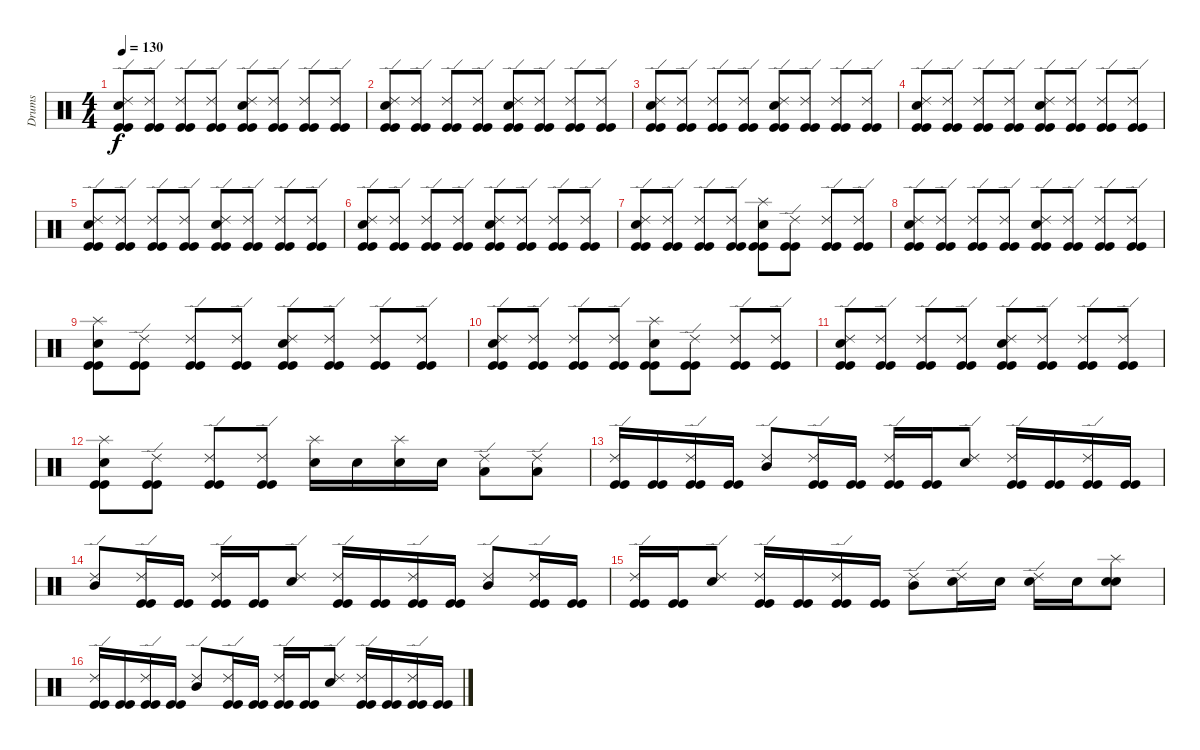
\track ("Drums" "Drums") {instrument percussion}
\staff {score}
\articulation defaults
\ts (4 4)
\tempo 130
\clef neutral
\ks c
("Ride (edge) 2" "Snare (hit) 2" "Kick (hit)" "Kick (hit)").8{dy f} ("Ride (edge) 2" "Kick (hit)" "Kick (hit)").8 ("Ride (edge) 2" "Kick (hit)" "Kick (hit)").8 ("Ride (edge) 2" "Kick (hit)" "Kick (hit)").8 ("Ride (edge) 2" "Snare (hit) 2" "Kick (hit)" "Kick (hit)").8 ("Ride (edge) 2" "Kick (hit)" "Kick (hit)").8 ("Ride (edge) 2" "Kick (hit)" "Kick (hit)").8 ("Ride (edge) 2" "Kick (hit)" "Kick (hit)").8 |
("Ride (edge) 2" "Snare (hit) 2" "Kick (hit)" "Kick (hit)").8 ("Ride (edge) 2" "Kick (hit)" "Kick (hit)").8 ("Ride (edge) 2" "Kick (hit)" "Kick (hit)").8 ("Ride (edge) 2" "Kick (hit)" "Kick (hit)").8 ("Ride (edge) 2" "Snare (hit) 2" "Kick (hit)" "Kick (hit)").8 ("Ride (edge) 2" "Kick (hit)" "Kick (hit)").8 ("Ride (edge) 2" "Kick (hit)" "Kick (hit)").8 ("Ride (edge) 2" "Kick (hit)" "Kick (hit)").8 |
("Ride (edge) 2" "Snare (hit) 2" "Kick (hit)" "Kick (hit)").8 ("Ride (edge) 2" "Kick (hit)" "Kick (hit)").8 ("Ride (edge) 2" "Kick (hit)" "Kick (hit)").8 ("Ride (edge) 2" "Kick (hit)" "Kick (hit)").8 ("Ride (edge) 2" "Snare (hit) 2" "Kick (hit)" "Kick (hit)").8 ("Ride (edge) 2" "Kick (hit)" "Kick (hit)").8 ("Ride (edge) 2" "Kick (hit)" "Kick (hit)").8 ("Ride (edge) 2" "Kick (hit)" "Kick (hit)").8 |
("Ride (edge) 2" "Snare (hit) 2" "Kick (hit)" "Kick (hit)").8 ("Ride (edge) 2" "Kick (hit)" "Kick (hit)").8 ("Ride (edge) 2" "Kick (hit)" "Kick (hit)").8 ("Ride (edge) 2" "Kick (hit)" "Kick (hit)").8 ("Ride (edge) 2" "Snare (hit) 2" "Kick (hit)" "Kick (hit)").8 ("Ride (edge) 2" "Kick (hit)" "Kick (hit)").8 ("Ride (edge) 2" "Kick (hit)" "Kick (hit)").8 ("Ride (edge) 2" "Kick (hit)" "Kick (hit)").8 |
("Ride (edge) 2" "Snare (hit) 2" "Kick (hit)" "Kick (hit)").8 ("Ride (edge) 2" "Kick (hit)" "Kick (hit)").8 ("Ride (edge) 2" "Kick (hit)" "Kick (hit)").8 ("Ride (edge) 2" "Kick (hit)" "Kick (hit)").8 ("Ride (edge) 2" "Snare (hit) 2" "Kick (hit)" "Kick (hit)").8 ("Ride (edge) 2" "Kick (hit)" "Kick (hit)").8 ("Ride (edge) 2" "Kick (hit)" "Kick (hit)").8 ("Ride (edge) 2" "Kick (hit)" "Kick (hit)").8 |
("Ride (edge) 2" "Snare (hit) 2" "Kick (hit)" "Kick (hit)").8 ("Ride (edge) 2" "Kick (hit)" "Kick (hit)").8 ("Ride (edge) 2" "Kick (hit)" "Kick (hit)").8 ("Ride (edge) 2" "Kick (hit)" "Kick (hit)").8 ("Ride (edge) 2" "Snare (hit) 2" "Kick (hit)" "Kick (hit)").8 ("Ride (edge) 2" "Kick (hit)" "Kick (hit)").8 ("Ride (edge) 2" "Kick (hit)" "Kick (hit)").8 ("Ride (edge) 2" "Kick (hit)" "Kick (hit)").8 |
("Ride (edge) 2" "Snare (hit) 2" "Kick (hit)" "Kick (hit)").8 ("Ride (edge) 2" "Kick (hit)" "Kick (hit)").8 ("Ride (edge) 2" "Kick (hit)" "Kick (hit)").8 ("Ride (edge) 2" "Kick (hit)" "Kick (hit)").8 ("Splash (hit)" "Snare (hit) 2" "Kick (hit)" "Kick (hit)").8 ("Ride (edge) 2" "Kick (hit)" "Kick (hit)").8 ("Ride (edge) 2" "Kick (hit)" "Kick (hit)").8 ("Ride (edge) 2" "Kick (hit)" "Kick (hit)").8 |
("Ride (edge) 2" "Snare (hit) 2" "Kick (hit)" "Kick (hit)").8 ("Ride (edge) 2" "Kick (hit)" "Kick (hit)").8 ("Ride (edge) 2" "Kick (hit)" "Kick (hit)").8 ("Ride (edge) 2" "Kick (hit)" "Kick (hit)").8 ("Ride (edge) 2" "Snare (hit) 2" "Kick (hit)" "Kick (hit)").8 ("Ride (edge) 2" "Kick (hit)" "Kick (hit)").8 ("Ride (edge) 2" "Kick (hit)" "Kick (hit)").8 ("Ride (edge) 2" "Kick (hit)" "Kick (hit)").8 |
("Splash (hit)" "Snare (hit) 2" "Kick (hit)" "Kick (hit)").8 ("Ride (edge) 2" "Kick (hit)" "Kick (hit)").8 ("Ride (edge) 2" "Kick (hit)" "Kick (hit)").8 ("Ride (edge) 2" "Kick (hit)" "Kick (hit)").8 ("Ride (edge) 2" "Snare (hit) 2" "Kick (hit)" "Kick (hit)").8 ("Ride (edge) 2" "Kick (hit)" "Kick (hit)").8 ("Ride (edge) 2" "Kick (hit)" "Kick (hit)").8 ("Ride (edge) 2" "Kick (hit)" "Kick (hit)").8 |
("Ride (edge) 2" "Snare (hit) 2" "Kick (hit)" "Kick (hit)").8 ("Ride (edge) 2" "Kick (hit)" "Kick (hit)").8 ("Ride (edge) 2" "Kick (hit)" "Kick (hit)").8 ("Ride (edge) 2" "Kick (hit)" "Kick (hit)").8 ("Splash (hit)" "Snare (hit) 2" "Kick (hit)" "Kick (hit)").8 ("Ride (edge) 2" "Kick (hit)" "Kick (hit)").8 ("Ride (edge) 2" "Kick (hit)" "Kick (hit)").8 ("Ride (edge) 2" "Kick (hit)" "Kick (hit)").8 |
("Ride (edge) 2" "Snare (hit) 2" "Kick (hit)" "Kick (hit)").8 ("Ride (edge) 2" "Kick (hit)" "Kick (hit)").8 ("Ride (edge) 2" "Kick (hit)" "Kick (hit)").8 ("Ride (edge) 2" "Kick (hit)" "Kick (hit)").8 ("Ride (edge) 2" "Snare (hit) 2" "Kick (hit)" "Kick (hit)").8 ("Ride (edge) 2" "Kick (hit)" "Kick (hit)").8 ("Ride (edge) 2" "Kick (hit)" "Kick (hit)").8 ("Ride (edge) 2" "Kick (hit)" "Kick (hit)").8 |
("Splash (hit)" "Snare (hit) 2" "Kick (hit)" "Kick (hit)").8 ("Ride (edge) 2" "Kick (hit)" "Kick (hit)").8 ("Ride (edge) 2" "Kick (hit)" "Kick (hit)").8 ("Ride (edge) 2" "Kick (hit)" "Kick (hit)").8 ("Splash (hit)" "Snare (hit) 2").16 "Snare (hit) 2".16 ("Splash (hit)" "Snare (hit) 2").16 "Snare (hit) 2".16 ("Ride (edge) 2" "Low Tom (hit)").8 ("Ride (edge) 2" "Low Tom (hit)").8 |
("Ride (edge) 2" "Kick (hit)" "Kick (hit)").16 ("Kick (hit)" "Kick (hit)").16 ("Ride (edge) 2" "Kick (hit)" "Kick (hit)").16 ("Kick (hit)" "Kick (hit)").16 ("Ride (edge) 2" "Mid Tom (hit)").8 ("Ride (edge) 2" "Kick (hit)" "Kick (hit)").16 ("Kick (hit)" "Kick (hit)").16 ("Ride (edge) 2" "Kick (hit)" "Kick (hit)").16 ("Kick (hit)" "Kick (hit)").16 ("Ride (edge) 2" "Snare (hit) 2").8 ("Ride (edge) 2" "Kick (hit)" "Kick (hit)").16 ("Kick (hit)" "Kick (hit)").16 ("Ride (edge) 2" "Kick (hit)" "Kick (hit)").16 ("Kick (hit)" "Kick (hit)").16 |
("Ride (edge) 2" "Mid Tom (hit)").8 ("Ride (edge) 2" "Kick (hit)" "Kick (hit)").16 ("Kick (hit)" "Kick (hit)").16 ("Ride (edge) 2" "Kick (hit)" "Kick (hit)").16 ("Kick (hit)" "Kick (hit)").16 ("Ride (edge) 2" "Snare (hit) 2").8 ("Ride (edge) 2" "Kick (hit)" "Kick (hit)").16 ("Kick (hit)" "Kick (hit)").16 ("Ride (edge) 2" "Kick (hit)" "Kick (hit)").16 ("Kick (hit)" "Kick (hit)").16 ("Ride (edge) 2" "Mid Tom (hit)").8 ("Ride (edge) 2" "Kick (hit)" "Kick (hit)").16 ("Kick (hit)" "Kick (hit)").16 |
("Ride (edge) 2" "Kick (hit)" "Kick (hit)").16 ("Kick (hit)" "Kick (hit)").16 ("Ride (edge) 2" "Snare (hit) 2").8 ("Ride (edge) 2" "Kick (hit)" "Kick (hit)").16 ("Kick (hit)" "Kick (hit)").16 ("Ride (edge) 2" "Kick (hit)" "Kick (hit)").16 ("Kick (hit)" "Kick (hit)").16 ("Ride (edge) 2" "Mid Tom (hit)").8 ("Ride (edge) 2" "Snare (hit) 2").16 "Snare (hit) 2".16 ("Ride (edge) 2" "Snare (hit) 2").16 "Snare (hit) 2".16 ("Splash (hit)" "Snare (hit) 2" "Snare (hit) 2").8 |
("Ride (edge) 2" "Kick (hit)" "Kick (hit)").16 ("Kick (hit)" "Kick (hit)").16 ("Ride (edge) 2" "Kick (hit)" "Kick (hit)").16 ("Kick (hit)" "Kick (hit)").16 ("Ride (edge) 2" "Mid Tom (hit)").8 ("Ride (edge) 2" "Kick (hit)" "Kick (hit)").16 ("Kick (hit)" "Kick (hit)").16 ("Ride (edge) 2" "Kick (hit)" "Kick (hit)").16 ("Kick (hit)" "Kick (hit)").16 ("Ride (edge) 2" "Snare (hit) 2").8 ("Ride (edge) 2" "Kick (hit)" "Kick (hit)").16 ("Kick (hit)" "Kick (hit)").16 ("Ride (edge) 2" "Kick (hit)" "Kick (hit)").16 ("Kick (hit)" "Kick (hit)").16
